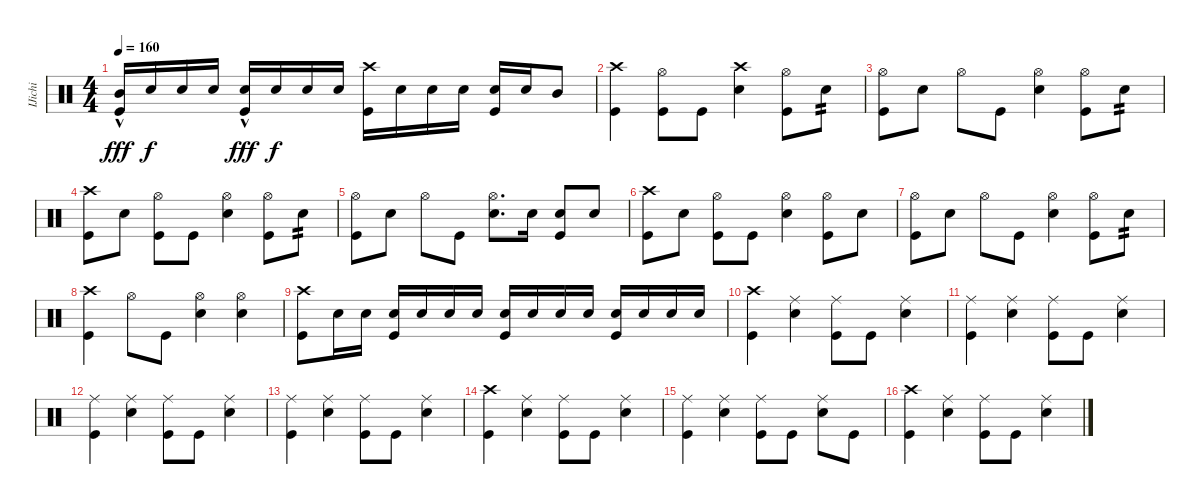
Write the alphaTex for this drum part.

\track ("IJichi" "IJichi") {instrument percussion}
\staff {score}
\articulation defaults
\ts (4 4)
\tempo 160
\clef neutral
\ks c
("Mid Tom (hit)"{hac} "Kick (hit)").16{dy fff} "Snare (hit) 2".16{dy f} "Snare (hit) 2".16 "Snare (hit) 2".16 ("Snare (hit) 2"{hac} "Kick (hit)").16{dy fff} "Snare (hit) 2".16{dy f} "Snare (hit) 2".16 "Snare (hit) 2".16 ("Crash high (hit)" "Kick (hit)").16 "Snare (hit) 2".16 "Snare (hit) 2".16 "Snare (hit) 2".16 ("Snare (hit) 2" "Kick (hit)").16 "Snare (hit) 2".16 "Mid Tom (hit)".8 |
("Crash high (hit)" "Kick (hit)").4 ("Hi-Hat (open)" "Kick (hit)").8 "Kick (hit)".8 ("Crash high (hit)" "Snare (hit) 2").4 ("Hi-Hat (open)" "Kick (hit)").8 "Snare (hit) 2".8{tp 2} |
("Hi-Hat (open)" "Kick (hit)").8 "Snare (hit) 2".8 "Hi-Hat (open)".8 "Kick (hit)".8 ("Hi-Hat (open)" "Snare (hit) 2").4 ("Hi-Hat (open)" "Kick (hit)").8 "Snare (hit) 2".8{tp 2} |
("Crash high (hit)" "Kick (hit)").8 "Snare (hit) 2".8 ("Hi-Hat (open)" "Kick (hit)").8 "Kick (hit)".8 ("Hi-Hat (open)" "Snare (hit) 2").4 ("Hi-Hat (open)" "Kick (hit)").8 "Snare (hit) 2".8{tp 2} |
("Hi-Hat (open)" "Kick (hit)").8 "Snare (hit) 2".8 "Hi-Hat (open)".8 "Kick (hit)".8 ("Hi-Hat (open)" "Snare (hit) 2").8{d} "Snare (hit) 2".16 ("Snare (hit) 2" "Kick (hit)").8 "Snare (hit) 2".8 |
("Crash high (hit)" "Kick (hit)").8 "Snare (hit) 2".8 ("Hi-Hat (open)" "Kick (hit)").8 "Kick (hit)".8 ("Hi-Hat (open)" "Snare (hit) 2").4 ("Hi-Hat (open)" "Kick (hit)").8 "Snare (hit) 2".8 |
("Hi-Hat (open)" "Kick (hit)").8 "Snare (hit) 2".8 "Hi-Hat (open)".8 "Kick (hit)".8 ("Hi-Hat (open)" "Snare (hit) 2").4 ("Hi-Hat (open)" "Kick (hit)").8 "Snare (hit) 2".8{tp 2} |
("Crash high (hit)" "Kick (hit)").4 "Hi-Hat (open)".8 "Kick (hit)".8 ("Hi-Hat (open)" "Snare (hit) 2").4 ("Hi-Hat (open)" "Snare (hit) 2").4 |
("Crash high (hit)" "Kick (hit)").8 "Snare (hit) 2".16 "Snare (hit) 2".16 ("Snare (hit) 2" "Kick (hit)").16 "Snare (hit) 2".16 "Snare (hit) 2".16 "Snare (hit) 2".16 ("Snare (hit) 2" "Kick (hit)").16 "Snare (hit) 2".16 "Snare (hit) 2".16 "Snare (hit) 2".16 ("Snare (hit) 2" "Kick (hit)").16 "Snare (hit) 2".16 "Snare (hit) 2".16 "Snare (hit) 2".16 |
("Crash high (hit)" "Kick (hit)").4 ("Ride (middle)" "Snare (hit) 2").4 ("Ride (middle)" "Kick (hit)").8 "Kick (hit)".8 ("Ride (middle)" "Snare (hit) 2").4 |
("Ride (middle)" "Kick (hit)").4 ("Ride (middle)" "Snare (hit) 2").4 ("Ride (middle)" "Kick (hit)").8 "Kick (hit)".8 ("Ride (middle)" "Snare (hit) 2").4 |
("Ride (middle)" "Kick (hit)").4 ("Ride (middle)" "Snare (hit) 2").4 ("Ride (middle)" "Kick (hit)").8 "Kick (hit)".8 ("Ride (middle)" "Snare (hit) 2").4 |
("Ride (middle)" "Kick (hit)").4 ("Ride (middle)" "Snare (hit) 2").4 ("Ride (middle)" "Kick (hit)").8 "Kick (hit)".8 ("Ride (middle)" "Snare (hit) 2").4 |
("Crash high (hit)" "Kick (hit)").4 ("Ride (middle)" "Snare (hit) 2").4 ("Ride (middle)" "Kick (hit)").8 "Kick (hit)".8 ("Ride (middle)" "Snare (hit) 2").4 |
("Ride (middle)" "Kick (hit)").4 ("Ride (middle)" "Snare (hit) 2").4 ("Ride (middle)" "Kick (hit)").8 "Kick (hit)".8 ("Ride (middle)" "Snare (hit) 2").8 "Kick (hit)".8 |
("Crash high (hit)" "Kick (hit)").4 ("Ride (middle)" "Snare (hit) 2").4 ("Ride (middle)" "Kick (hit)").8 "Kick (hit)".8 ("Ride (middle)" "Snare (hit) 2").4
